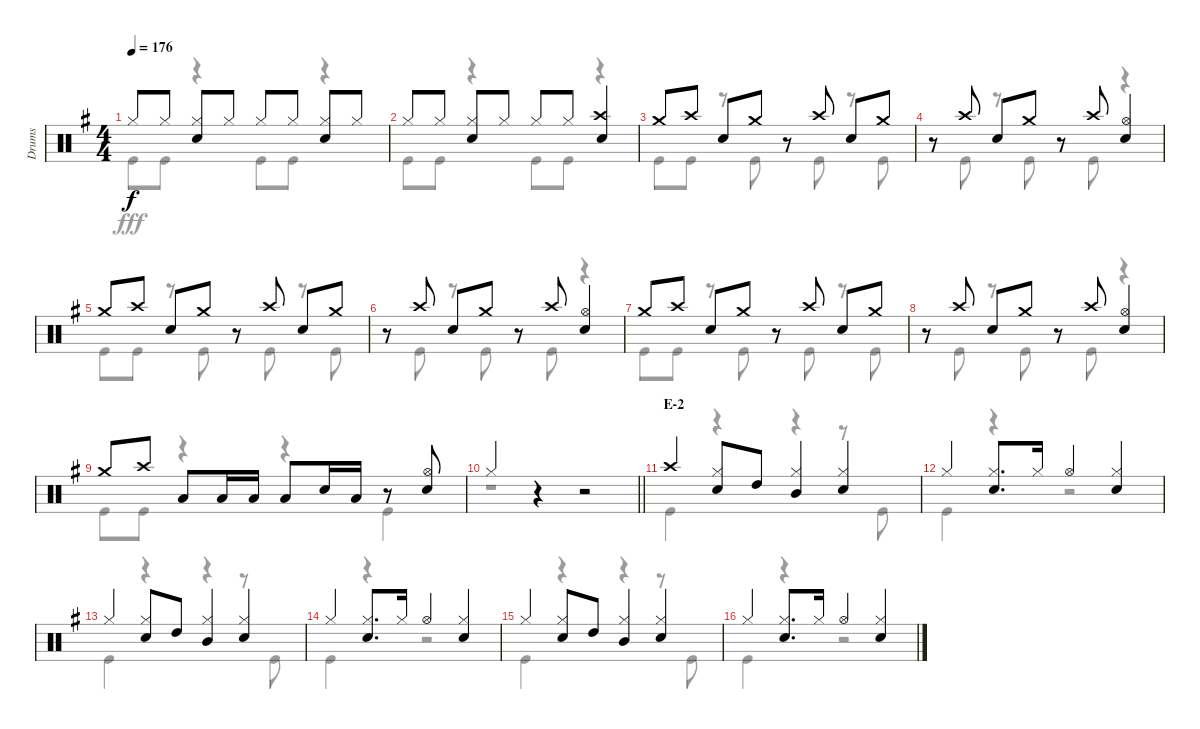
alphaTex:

\track ("Drums" "Drums") {instrument percussion}
\staff {score}
\articulation defaults
\voice
\ts (4 4)
\tempo 176
\clef neutral
\ks g "Hi-Hat (closed)".8{dy f} "Hi-Hat (closed)".8
("Hi-Hat (closed)" "Snare (hit) 2").8 "Hi-Hat (closed)".8 "Hi-Hat (closed)".8 "Hi-Hat (closed)".8 ("Hi-Hat (closed)" "Snare (hit) 2").8 "Hi-Hat (closed)".8 |
"Hi-Hat (closed)".8 "Hi-Hat (closed)".8 ("Hi-Hat (closed)" "Snare (hit) 2").8 "Hi-Hat (closed)".8 "Hi-Hat (closed)".8 "Hi-Hat (closed)".8 ("Crash high (hit)" "Snare (hit) 2").4 |
"Crash medium (hit)".8 "Crash high (hit)".8 "Snare (hit) 2".8 "Crash medium (hit)".8 r.8 "Crash high (hit)".8 "Snare (hit) 2".8 "Crash medium (hit)".8 |
r.8 "Crash high (hit)".8 "Snare (hit) 2".8 "Crash medium (hit)".8 r.8 "Crash high (hit)".8 ("Hi-Hat (open)" "Snare (hit) 2").4 |
"Crash medium (hit)".8 "Crash high (hit)".8 "Snare (hit) 2".8 "Crash medium (hit)".8 r.8 "Crash high (hit)".8 "Snare (hit) 2".8 "Crash medium (hit)".8 |
r.8 "Crash high (hit)".8 "Snare (hit) 2".8 "Crash medium (hit)".8 r.8 "Crash high (hit)".8 ("Hi-Hat (open)" "Snare (hit) 2").4 |
"Crash medium (hit)".8 "Crash high (hit)".8 "Snare (hit) 2".8 "Crash medium (hit)".8 r.8 "Crash high (hit)".8 "Snare (hit) 2".8 "Crash medium (hit)".8 |
r.8 "Crash high (hit)".8 "Snare (hit) 2".8 "Crash medium (hit)".8 r.8 "Crash high (hit)".8 ("Hi-Hat (open)" "Snare (hit) 2").4 |
"Crash medium (hit)".8 "Crash high (hit)".8 "Low Tom (hit)".8 "Low Tom (hit)".16 "Low Tom (hit)".16 "Low Tom (hit)".8 "Snare (hit) 2".16 "Low Tom (hit)".16 r.8 ("Hi-Hat (open)" "Snare (hit) 2").8 |
\barLineRight lightlight "Hi-Hat (closed)".4
r.4 r.2 |
\section ("" "E-2")
"Crash high (hit)".4 ("Hi-Hat (closed)" "Snare (hit) 2").8 "High Tom (hit)".8 ("Hi-Hat (closed)" "Mid Tom (hit)").4 ("Hi-Hat (closed)" "Snare (hit) 2").4 |
"Hi-Hat (closed)".4 ("Hi-Hat (closed)" "Snare (hit) 2").8{d} "Hi-Hat (closed)".16 "Hi-Hat (open)".4 ("Hi-Hat (closed)" "Snare (hit) 2").4 |
"Hi-Hat (closed)".4 ("Hi-Hat (closed)" "Snare (hit) 2").8 "High Tom (hit)".8 ("Hi-Hat (closed)" "Mid Tom (hit)").4 ("Hi-Hat (closed)" "Snare (hit) 2").4 |
"Hi-Hat (closed)".4 ("Hi-Hat (closed)" "Snare (hit) 2").8{d} "Hi-Hat (closed)".16 "Hi-Hat (open)".4 ("Hi-Hat (closed)" "Snare (hit) 2").4 |
"Hi-Hat (closed)".4 ("Hi-Hat (closed)" "Snare (hit) 2").8 "High Tom (hit)".8 ("Hi-Hat (closed)" "Mid Tom (hit)").4 ("Hi-Hat (closed)" "Snare (hit) 2").4 |
"Hi-Hat (closed)".4 ("Hi-Hat (closed)" "Snare (hit) 2").8{d} "Hi-Hat (closed)".16 "Hi-Hat (open)".4 ("Hi-Hat (closed)" "Snare (hit) 2").4
\voice
\clef neutral
\ottava regular
\simile none
\ks g "Kick (hit)".8{dy fff} "Kick (hit)".8
r.4 "Kick (hit)".8 "Kick (hit)".8 r.4 |
"Kick (hit)".8 "Kick (hit)".8 r.4 "Kick (hit)".8 "Kick (hit)".8 r.4 |
"Kick (hit)".8 "Kick (hit)".8 r.8 "Kick (hit)".8 r.8 "Kick (hit)".8 r.8 "Kick (hit)".8 |
r.8 "Kick (hit)".8 r.8 "Kick (hit)".8 r.8 "Kick (hit)".8 r.4 |
"Kick (hit)".8 "Kick (hit)".8 r.8 "Kick (hit)".8 r.8 "Kick (hit)".8 r.8 "Kick (hit)".8 |
r.8 "Kick (hit)".8 r.8 "Kick (hit)".8 r.8 "Kick (hit)".8 r.4 |
"Kick (hit)".8 "Kick (hit)".8 r.8 "Kick (hit)".8 r.8 "Kick (hit)".8 r.8 "Kick (hit)".8 |
r.8 "Kick (hit)".8 r.8 "Kick (hit)".8 r.8 "Kick (hit)".8 r.4 |
"Kick (hit)".8 "Kick (hit)".8 r.4 r.4 "Kick (hit)".4 |
\barLineRight lightlight
r.1 |
"Kick (hit)".4 r.4 r.4 r.8 "Kick (hit)".8 |
"Kick (hit)".4 r.4 r.2 |
"Kick (hit)".4 r.4 r.4 r.8 "Kick (hit)".8 |
"Kick (hit)".4 r.4 r.2 |
"Kick (hit)".4 r.4 r.4 r.8 "Kick (hit)".8 |
"Kick (hit)".4 r.4 r.2
